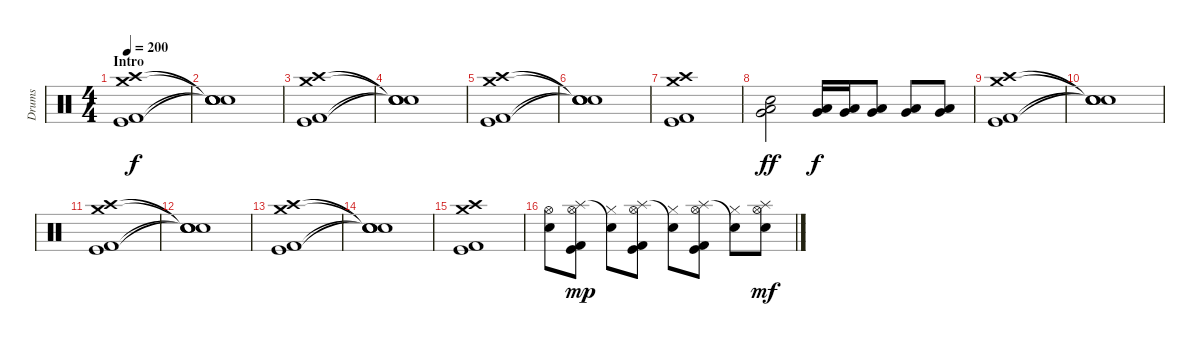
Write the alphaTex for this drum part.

\track ("Drums" "Drums") {instrument percussion}
\staff {score}
\articulation defaults
\ts (4 4)
\section ("" "Intro")
\tempo 200
\clef neutral
\ks c
("Crash high (hit)" "Crash medium (hit)" "Kick (hit)" "Kick (hit) 2").1{dy f} |
("Snare (hit)"{t} "Snare (hit)"{t} "Snare (hit)"{t} "Snare (hit)"{t}).1 |
("Crash high (hit)" "Crash medium (hit)" "Kick (hit)" "Kick (hit) 2").1 |
("Snare (hit)"{t} "Snare (hit)"{t} "Snare (hit)"{t} "Snare (hit)"{t}).1 |
("Crash high (hit)" "Crash medium (hit)" "Kick (hit)" "Kick (hit) 2").1 |
("Snare (hit)"{t} "Snare (hit)"{t} "Snare (hit)"{t} "Snare (hit)"{t}).1 |
("Crash high (hit)" "Crash medium (hit)" "Kick (hit)" "Kick (hit) 2").1 |
("Snare (hit) 2" "Very Low Tom (hit)" "Low Floor Tom (hit)").2{dy ff} ("Very Low Tom (hit)" "Low Floor Tom (hit)").16{dy f} ("Very Low Tom (hit)" "Low Floor Tom (hit)").16 ("Very Low Tom (hit)" "Low Floor Tom (hit)").8 ("Very Low Tom (hit)" "Low Floor Tom (hit)").8 ("Very Low Tom (hit)" "Low Floor Tom (hit)").8 |
("Crash high (hit)" "Crash medium (hit)" "Kick (hit)" "Kick (hit) 2").1 |
("Snare (hit)"{t} "Snare (hit)"{t} "Snare (hit)"{t} "Snare (hit)"{t}).1 |
("Crash high (hit)" "Crash medium (hit)" "Kick (hit)" "Kick (hit) 2").1 |
("Snare (hit)"{t} "Snare (hit)"{t} "Snare (hit)"{t} "Snare (hit)"{t}).1 |
("Crash high (hit)" "Crash medium (hit)" "Kick (hit)" "Kick (hit) 2").1 |
("Snare (hit)"{t} "Snare (hit)"{t} "Snare (hit)"{t} "Snare (hit)"{t}).1 |
("Crash high (hit)" "Crash medium (hit)" "Kick (hit)" "Kick (hit) 2").1 |
("Hi-Hat (open)" "Snare (hit) 2").8 ("Splash (hit)" "Hi-Hat (open)" "Kick (hit)" "Kick (hit) 2").8{dy mp} ("Snare (hit)"{t} "Hi-Hat (closed)").8 ("Splash (hit)" "Hi-Hat (open)" "Kick (hit)" "Kick (hit) 2").8 ("Snare (hit)"{t} "Hi-Hat (closed)").8 ("Splash (hit)" "Hi-Hat (open)" "Kick (hit)" "Kick (hit) 2").8 ("Snare (hit)"{t} "Hi-Hat (closed)").8 ("Splash (hit)" "Hi-Hat (open)" "Snare (hit) 2").8{dy mf}
